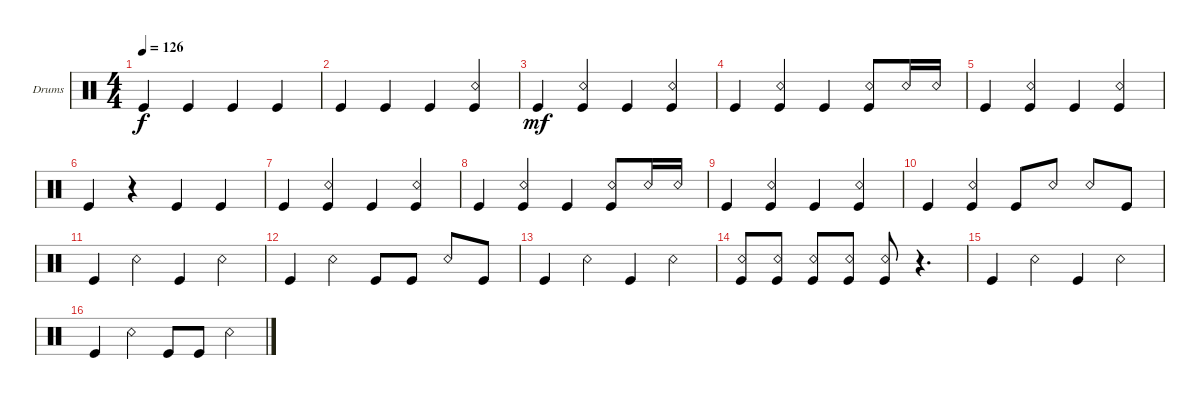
\defaultSystemsLayout 4
\bracketExtendMode groupsimilarinstruments
\firstSystemTrackNameOrientation horizontal
\otherSystemsTrackNameOrientation horizontal
\track ("Drumkit" "Drums") {instrument percussion}
\staff {score}
\articulation defaults
\ts (4 4)
\tempo 126
\clef neutral
\ks c "Kick (hit)".4{dy f} "Kick (hit)".4 "Kick (hit)".4 "Kick (hit)".4
|
"Kick (hit)".4 "Kick (hit)".4 "Kick (hit)".4 ("Kick (hit)" "Snare (rim shot)").4 |
"Kick (hit)".4{dy mf} ("Kick (hit)" "Snare (rim shot)").4 "Kick (hit)".4 ("Kick (hit)" "Snare (rim shot)").4 |
"Kick (hit)".4 ("Kick (hit)" "Snare (rim shot)").4 "Kick (hit)".4 ("Kick (hit)" "Snare (rim shot)").8 "Snare (rim shot)".16 "Snare (rim shot)".16 |
"Kick (hit)".4 ("Kick (hit)" "Snare (rim shot)").4 "Kick (hit)".4 ("Kick (hit)" "Snare (rim shot)").4 |
"Kick (hit)".4 r.4 "Kick (hit)".4 "Kick (hit)".4 |
"Kick (hit)".4 ("Kick (hit)" "Snare (rim shot)").4 "Kick (hit)".4 ("Kick (hit)" "Snare (rim shot)").4 |
"Kick (hit)".4 ("Kick (hit)" "Snare (rim shot)").4 "Kick (hit)".4 ("Kick (hit)" "Snare (rim shot)").8 "Snare (rim shot)".16 "Snare (rim shot)".16 |
"Kick (hit)".4 ("Kick (hit)" "Snare (rim shot)").4 "Kick (hit)".4 ("Kick (hit)" "Snare (rim shot)").4 |
"Kick (hit)".4 ("Kick (hit)" "Snare (rim shot)").4 "Kick (hit)".8 "Snare (rim shot)".8 "Snare (rim shot)".8 "Kick (hit)".8 |
"Kick (hit)".4 "Snare (rim shot)".4 "Kick (hit)".4 "Snare (rim shot)".4 |
"Kick (hit)".4 "Snare (rim shot)".4 "Kick (hit)".8 "Kick (hit)".8 "Snare (rim shot)".8 "Kick (hit)".8 |
"Kick (hit)".4 "Snare (rim shot)".4 "Kick (hit)".4 "Snare (rim shot)".4 |
("Kick (hit)" "Snare (rim shot)").8 ("Snare (rim shot)" "Kick (hit)").8 ("Kick (hit)" "Snare (rim shot)").8 ("Kick (hit)" "Snare (rim shot)").8 ("Snare (rim shot)" "Kick (hit)").8 r.4{d} |
"Kick (hit)".4 "Snare (rim shot)".4 "Kick (hit)".4 "Snare (rim shot)".4 |
"Kick (hit)".4 "Snare (rim shot)".4 "Kick (hit)".8 "Kick (hit)".8 "Snare (rim shot)".4
